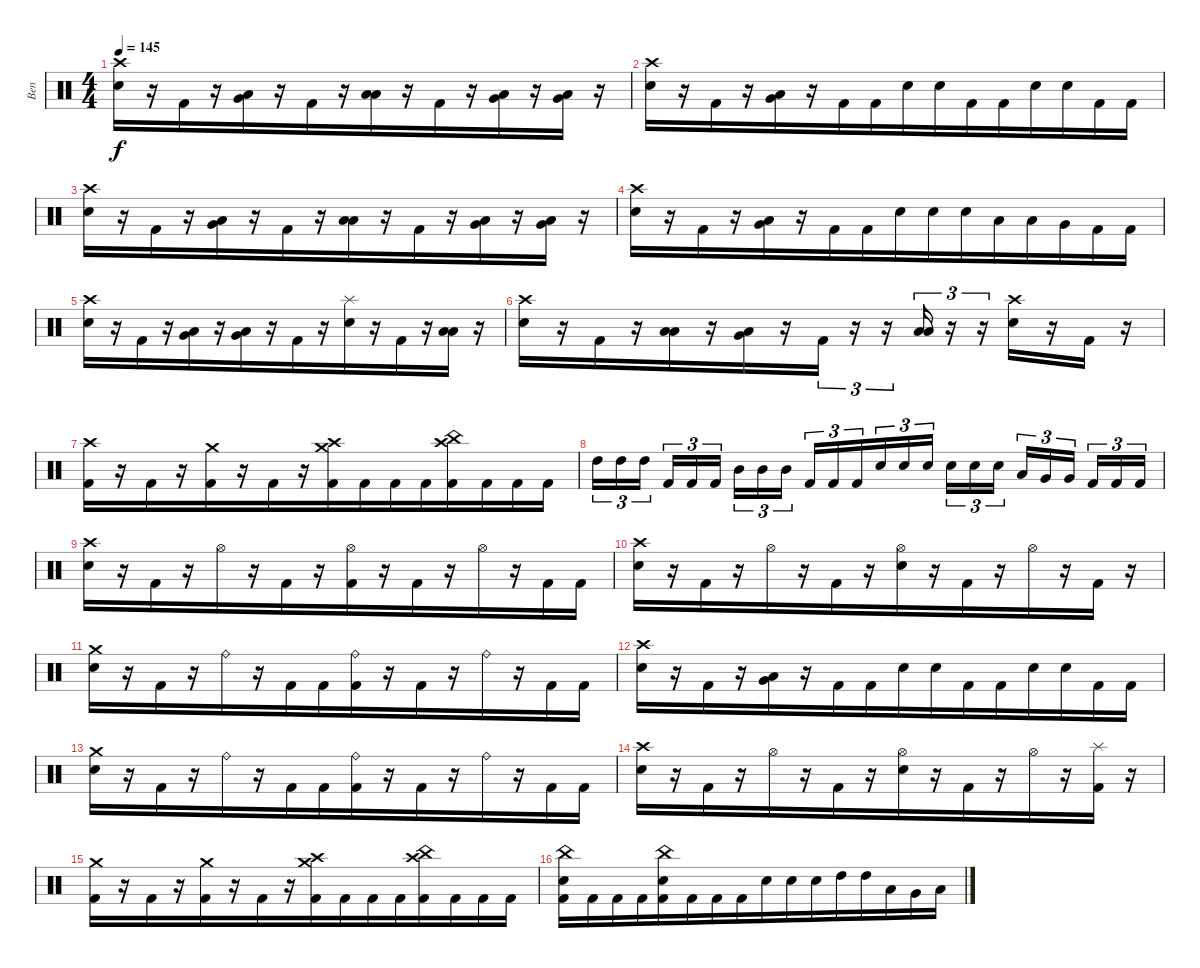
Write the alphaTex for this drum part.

\track ("Ben" "Ben") {instrument percussion}
\staff {score}
\articulation defaults
\ts (4 4)
\tempo 145
\clef neutral
\ks c
("Crash high (hit)" "Electric Snare (hit)").16{dy f} r.16{beam merge} "Kick (hit) 2".16{beam merge} r.16{beam merge} ("Very Low Tom (hit)" "Low Floor Tom (hit)").16{beam merge} r.16{beam merge} "Kick (hit) 2".16{beam merge} r.16{beam merge} ("Low Floor Tom (hit)" "Low Tom (hit)").16{beam merge} r.16{beam merge} "Kick (hit) 2".16{beam merge} r.16{beam merge} ("Very Low Tom (hit)" "Low Floor Tom (hit)").16 r.16 ("Low Floor Tom (hit)" "Very Low Tom (hit)").16{beam merge} r.16 |
("Crash high (hit)" "Electric Snare (hit)").16 r.16{beam merge} "Kick (hit) 2".16{beam merge} r.16{beam merge} ("Very Low Tom (hit)" "Low Floor Tom (hit)").16{beam merge} r.16{beam merge} "Kick (hit) 2".16{beam merge} "Kick (hit) 2".16{beam merge} "Electric Snare (hit)".16{beam merge} "Electric Snare (hit)".16 "Kick (hit) 2".16{beam merge} "Kick (hit) 2".16{beam merge} "Electric Snare (hit)".16 "Electric Snare (hit)".16{beam merge} "Kick (hit) 2".16{beam merge} "Kick (hit) 2".16 |
("Crash high (hit)" "Electric Snare (hit)").16 r.16{beam merge} "Kick (hit) 2".16{beam merge} r.16{beam merge} ("Very Low Tom (hit)" "Low Floor Tom (hit)").16{beam merge} r.16{beam merge} "Kick (hit) 2".16{beam merge} r.16{beam merge} ("Low Floor Tom (hit)" "Low Tom (hit)").16{beam merge} r.16{beam merge} "Kick (hit) 2".16{beam merge} r.16{beam merge} ("Very Low Tom (hit)" "Low Floor Tom (hit)").16 r.16 ("Low Floor Tom (hit)" "Very Low Tom (hit)").16{beam merge} r.16 |
("Crash high (hit)" "Electric Snare (hit)").16 r.16{beam merge} "Kick (hit) 2".16{beam merge} r.16{beam merge} ("Very Low Tom (hit)" "Low Floor Tom (hit)").16{beam merge} r.16{beam merge} "Kick (hit) 2".16{beam merge} "Kick (hit) 2".16{beam merge} "Electric Snare (hit)".16{beam merge} "Electric Snare (hit)".16 "Electric Snare (hit)".16{beam merge} "Low Tom (hit)".16{beam merge} "Low Tom (hit)".16 "Very Low Tom (hit)".16 "Kick (hit) 2".16 "Kick (hit) 2".16 |
("Crash high (hit)" "Electric Snare (hit)").16 r.16{beam merge} "Kick (hit) 2".16{beam merge} r.16{beam merge} ("Low Tom (hit)" "Very Low Tom (hit)").16{beam merge} r.16{beam merge} ("Very Low Tom (hit)" "Low Floor Tom (hit)").16{beam merge} r.16{beam merge} "Kick (hit) 2".16{beam merge} r.16{beam merge} ("Splash (hit)" "Electric Snare (hit)").16{beam merge} r.16{beam merge} "Kick (hit) 2".16 r.16 ("Low Tom (hit)" "Low Floor Tom (hit)").16{beam merge} r.16 |
("Crash high (hit)" "Electric Snare (hit)").16 r.16{beam merge} "Kick (hit) 2".16{beam merge} r.16{beam merge} ("Low Tom (hit)" "Low Floor Tom (hit)").16{beam merge} r.16{beam merge} ("Low Floor Tom (hit)" "Very Low Tom (hit)").16{beam merge} r.16{beam merge} "Kick (hit) 2".16{tu (3 2)} r.16{tu (3 2) beam merge} r.16{tu (3 2)} ("Low Floor Tom (hit)" "Low Tom (hit)").16{tu (3 2)} r.16{tu (3 2)} r.16{tu (3 2)} ("Crash high (hit)" "Electric Snare (hit)").16 r.16 "Kick (hit) 2".16{beam merge} r.16 |
("Crash high (hit)" "Kick (hit) 2").16 r.16{beam merge} "Kick (hit) 2".16{beam merge} r.16{beam merge} ("Crash medium (hit)" "Kick (hit) 2").16{beam merge} r.16{beam merge} "Kick (hit) 2".16{beam merge} r.16{beam merge} ("Crash medium (hit)" "Crash high (hit)" "Kick (hit) 2").16{beam merge} "Kick (hit) 2".16{beam merge} "Kick (hit) 2".16{beam merge} "Kick (hit) 2".16{beam merge} ("China (hit)" "Crash high (hit)" "Kick (hit) 2").16 "Kick (hit) 2".16 "Kick (hit) 2".16{beam merge} "Kick (hit) 2".16 |
"High Tom (hit)".16{tu (3 2)} "High Tom (hit)".16{tu (3 2) beam merge} "High Tom (hit)".16{tu (3 2) beam splitsecondary} "Kick (hit) 2".16{tu (3 2)} "Kick (hit) 2".16{tu (3 2) beam merge} "Kick (hit) 2".16{tu (3 2)} "Mid Tom (hit)".16{tu (3 2) beam merge} "Mid Tom (hit)".16{tu (3 2) beam merge} "Mid Tom (hit)".16{tu (3 2) beam splitsecondary} "Kick (hit) 2".16{tu (3 2) beam merge} "Kick (hit) 2".16{tu (3 2)} "Kick (hit) 2".16{tu (3 2) beam merge} "Electric Snare (hit)".16{tu (3 2)} "Electric Snare (hit)".16{tu (3 2) beam merge} "Electric Snare (hit)".16{tu (3 2) beam splitsecondary} "Electric Snare (hit)".16{tu (3 2) beam merge} "Electric Snare (hit)".16{tu (3 2)} "Electric Snare (hit)".16{tu (3 2)} "Low Tom (hit)".16{tu (3 2) beam merge} "Very Low Tom (hit)".16{tu (3 2) beam merge} "Very Low Tom (hit)".16{tu (3 2) beam splitsecondary} "Kick (hit) 2".16{tu (3 2) beam merge} "Kick (hit) 2".16{tu (3 2) beam merge} "Kick (hit) 2".16{tu (3 2)} |
("Crash high (hit)" "Electric Snare (hit)").16 r.16{beam merge} "Kick (hit) 2".16{beam merge} r.16{beam merge} "Hi-Hat (open)".16{beam merge} r.16{beam merge} "Kick (hit) 2".16{beam merge} r.16{beam merge} ("Hi-Hat (open)" "Kick (hit) 2").16{beam merge} r.16{beam merge} "Kick (hit) 2".16{beam merge} r.16{beam merge} "Hi-Hat (open)".16 r.16 "Kick (hit) 2".16{beam merge} "Kick (hit) 2".16 |
("Crash high (hit)" "Electric Snare (hit)").16 r.16{beam merge} "Kick (hit) 2".16{beam merge} r.16{beam merge} "Hi-Hat (open)".16{beam merge} r.16{beam merge} "Kick (hit) 2".16{beam merge} r.16{beam merge} ("Hi-Hat (open)" "Electric Snare (hit)").16{beam merge} r.16{beam merge} "Kick (hit) 2".16{beam merge} r.16{beam merge} "Hi-Hat (open)".16 r.16 "Kick (hit) 2".16{beam merge} r.16 |
("Crash medium (hit)" "Electric Snare (hit)").16 r.16{beam merge} "Kick (hit) 2".16{beam merge} r.16{beam merge} "Ride (bell)".16{beam merge} r.16{beam merge} "Kick (hit) 2".16{beam merge} "Kick (hit) 2".16{beam merge} ("Ride (bell)" "Kick (hit) 2").16{beam merge} r.16{beam merge} "Kick (hit) 2".16{beam merge} r.16{beam merge} "Ride (bell)".16 r.16 "Kick (hit) 2".16{beam merge} "Kick (hit) 2".16 |
("Crash high (hit)" "Electric Snare (hit)").16 r.16{beam merge} "Kick (hit) 2".16{beam merge} r.16{beam merge} ("Very Low Tom (hit)" "Low Floor Tom (hit)").16{beam merge} r.16{beam merge} "Kick (hit) 2".16{beam merge} "Kick (hit) 2".16{beam merge} "Electric Snare (hit)".16{beam merge} "Electric Snare (hit)".16 "Kick (hit) 2".16{beam merge} "Kick (hit) 2".16{beam merge} "Electric Snare (hit)".16 "Electric Snare (hit)".16{beam merge} "Kick (hit) 2".16{beam merge} "Kick (hit) 2".16 |
("Crash medium (hit)" "Electric Snare (hit)").16 r.16{beam merge} "Kick (hit) 2".16{beam merge} r.16{beam merge} "Ride (bell)".16{beam merge} r.16{beam merge} "Kick (hit) 2".16{beam merge} "Kick (hit) 2".16{beam merge} ("Ride (bell)" "Kick (hit) 2").16{beam merge} r.16{beam merge} "Kick (hit) 2".16{beam merge} r.16{beam merge} "Ride (bell)".16 r.16 "Kick (hit) 2".16{beam merge} "Kick (hit) 2".16 |
("Crash high (hit)" "Electric Snare (hit)").16 r.16{beam merge} "Kick (hit) 2".16{beam merge} r.16{beam merge} "Hi-Hat (open)".16{beam merge} r.16{beam merge} "Kick (hit) 2".16{beam merge} r.16{beam merge} ("Hi-Hat (open)" "Electric Snare (hit)").16{beam merge} r.16{beam merge} "Kick (hit) 2".16{beam merge} r.16{beam merge} "Hi-Hat (open)".16 r.16 ("Splash (hit)" "Kick (hit) 2").16{beam merge} r.16 |
("Crash medium (hit)" "Kick (hit) 2").16 r.16{beam merge} "Kick (hit) 2".16{beam merge} r.16{beam merge} ("Crash medium (hit)" "Kick (hit) 2").16{beam merge} r.16{beam merge} "Kick (hit) 2".16{beam merge} r.16{beam merge} ("Crash medium (hit)" "Crash high (hit)" "Kick (hit) 2").16{beam merge} "Kick (hit) 2".16{beam merge} "Kick (hit) 2".16{beam merge} "Kick (hit) 2".16{beam merge} ("China (hit)" "Crash high (hit)" "Kick (hit) 2").16 "Kick (hit) 2".16 "Kick (hit) 2".16{beam merge} "Kick (hit) 2".16 |
("China (hit)" "Kick (hit) 2" "Electric Snare (hit)").16 "Kick (hit) 2".16{beam merge} "Kick (hit) 2".16{beam merge} "Kick (hit) 2".16{beam merge} ("China (hit)" "Kick (hit) 2" "Electric Snare (hit)").16{beam merge} "Kick (hit) 2".16{beam merge} "Kick (hit) 2".16{beam merge} "Kick (hit) 2".16{beam merge} "Electric Snare (hit)".16{beam merge} "Electric Snare (hit)".16 "Electric Snare (hit)".16{beam merge} "High Tom (hit)".16{beam merge} "High Tom (hit)".16 "Low Tom (hit)".16{beam merge} "Very Low Tom (hit)".16{beam merge} "Low Floor Tom (hit)".16
